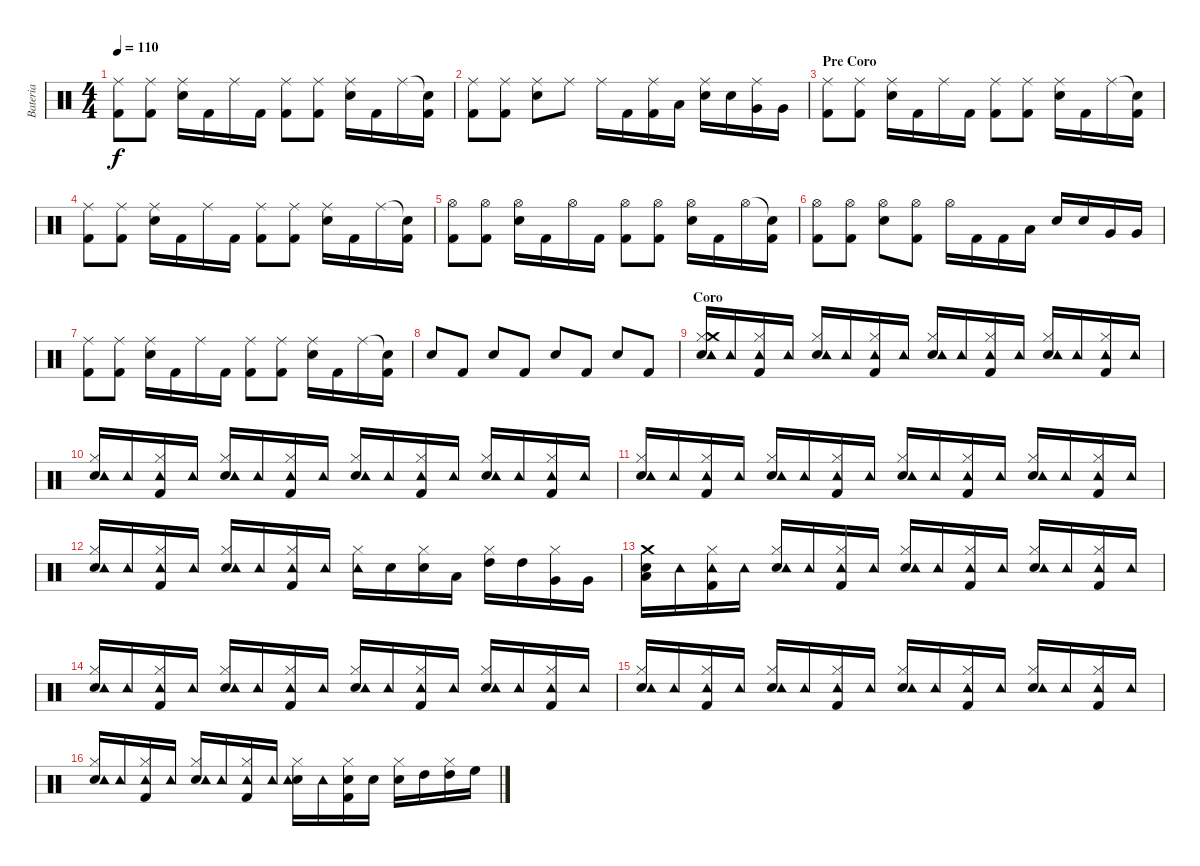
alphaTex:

\track ("Bateria" "Bateria") {instrument percussion}
\staff {score}
\articulation defaults
\ts (4 4)
\tempo 110
\clef neutral
\ks c
("Ride (middle)" "Kick (hit) 2").8{dy f} ("Ride (middle)" "Kick (hit) 2").8 ("Ride (middle)" "Snare (hit) 2").16 "Kick (hit) 2".16 "Ride (middle)".16 "Kick (hit) 2".16 ("Ride (middle)" "Kick (hit) 2").8 ("Ride (middle)" "Kick (hit) 2").8 ("Ride (middle)" "Snare (hit) 2").16 "Kick (hit) 2".16 "Ride (middle)".16 ("Snare (hit)"{t} "Kick (hit) 2").16 |
("Ride (middle)" "Kick (hit) 2").8 ("Ride (middle)" "Kick (hit) 2").8 ("Ride (middle)" "Snare (hit) 2").8 "Ride (middle)".8 "Ride (middle)".16 "Kick (hit) 2".16 ("Ride (middle)" "Kick (hit) 2").16 "Low Tom (hit)".16 ("Ride (middle)" "Snare (hit) 2").16 "Snare (hit) 2".16 ("Ride (middle)" "Very Low Tom (hit)").16 "Very Low Tom (hit)".16 |
\section ("" "Pre Coro")
("Ride (middle)" "Kick (hit) 2").8 ("Ride (middle)" "Kick (hit) 2").8 ("Ride (middle)" "Snare (hit) 2").16 "Kick (hit) 2".16 "Ride (middle)".16 "Kick (hit) 2".16 ("Ride (middle)" "Kick (hit) 2").8 ("Ride (middle)" "Kick (hit) 2").8 ("Ride (middle)" "Snare (hit) 2").16 "Kick (hit) 2".16 "Ride (middle)".16 ("Snare (hit)"{t} "Kick (hit) 2").16 |
("Ride (middle)" "Kick (hit) 2").8 ("Ride (middle)" "Kick (hit) 2").8 ("Ride (middle)" "Snare (hit) 2").16 "Kick (hit) 2".16 "Ride (middle)".16 "Kick (hit) 2".16 ("Ride (middle)" "Kick (hit) 2").8 ("Ride (middle)" "Kick (hit) 2").8 ("Ride (middle)" "Snare (hit) 2").16 "Kick (hit) 2".16 "Ride (middle)".16 ("Snare (hit)"{t} "Kick (hit) 2").16 |
("Hi-Hat (open)" "Kick (hit) 2").8 ("Hi-Hat (open)" "Kick (hit) 2").8 ("Hi-Hat (open)" "Snare (hit) 2").16 "Kick (hit) 2".16 "Hi-Hat (open)".16 "Kick (hit) 2".16 ("Hi-Hat (open)" "Kick (hit) 2").8 ("Hi-Hat (open)" "Kick (hit) 2").8 ("Hi-Hat (open)" "Snare (hit) 2").16 "Kick (hit) 2".16 "Hi-Hat (open)".16 ("Snare (hit)"{t} "Kick (hit) 2").16 |
("Hi-Hat (open)" "Kick (hit) 2").8 ("Hi-Hat (open)" "Kick (hit) 2").8 ("Hi-Hat (open)" "Snare (hit) 2").8 ("Hi-Hat (open)" "Kick (hit) 2").8 "Hi-Hat (open)".16 "Kick (hit) 2".16 "Kick (hit) 2".16 "Low Tom (hit)".16 "Snare (hit) 2".16 "Snare (hit) 2".16 "Very Low Tom (hit)".16 "Very Low Tom (hit)".16 |
("Ride (middle)" "Kick (hit) 2").8 ("Ride (middle)" "Kick (hit) 2").8 ("Ride (middle)" "Snare (hit) 2").16 "Kick (hit) 2".16 "Ride (middle)".16 "Kick (hit) 2".16 ("Ride (middle)" "Kick (hit) 2").8 ("Ride (middle)" "Kick (hit) 2").8 ("Ride (middle)" "Snare (hit) 2").16 "Kick (hit) 2".16 "Ride (middle)".16 ("Snare (hit)"{t} "Kick (hit) 2").16 |
"Snare (hit) 2".8 "Kick (hit) 2".8 "Snare (hit) 2".8 "Kick (hit) 2".8 "Snare (hit) 2".8 "Kick (hit) 2".8 "Snare (hit) 2".8 "Kick (hit) 2".8 |
\section ("" "Coro")
("Hi-Hat (closed)" "Snare (hit) 2" "Crash medium (hit)" "Tambourine (hit)").16 "Tambourine (hit)".16 ("Hi-Hat (closed)" "Kick (hit) 2" "Tambourine (hit)").16 "Tambourine (hit)".16 ("Hi-Hat (closed)" "Snare (hit) 2" "Tambourine (hit)").16 "Tambourine (hit)".16 ("Hi-Hat (closed)" "Kick (hit) 2" "Tambourine (hit)").16 "Tambourine (hit)".16 ("Hi-Hat (closed)" "Snare (hit) 2" "Tambourine (hit)").16 "Tambourine (hit)".16 ("Hi-Hat (closed)" "Kick (hit) 2" "Tambourine (hit)").16 "Tambourine (hit)".16 ("Hi-Hat (closed)" "Snare (hit) 2" "Tambourine (hit)").16 "Tambourine (hit)".16 ("Hi-Hat (closed)" "Kick (hit) 2" "Tambourine (hit)").16 "Tambourine (hit)".16 |
("Hi-Hat (closed)" "Snare (hit) 2" "Tambourine (hit)").16 "Tambourine (hit)".16 ("Hi-Hat (closed)" "Kick (hit) 2" "Tambourine (hit)").16 "Tambourine (hit)".16 ("Hi-Hat (closed)" "Snare (hit) 2" "Tambourine (hit)").16 "Tambourine (hit)".16 ("Hi-Hat (closed)" "Kick (hit) 2" "Tambourine (hit)").16 "Tambourine (hit)".16 ("Hi-Hat (closed)" "Snare (hit) 2" "Tambourine (hit)").16 "Tambourine (hit)".16 ("Hi-Hat (closed)" "Kick (hit) 2" "Tambourine (hit)").16 "Tambourine (hit)".16 ("Hi-Hat (closed)" "Snare (hit) 2" "Tambourine (hit)").16 "Tambourine (hit)".16 ("Hi-Hat (closed)" "Kick (hit) 2" "Tambourine (hit)").16 "Tambourine (hit)".16 |
("Hi-Hat (closed)" "Snare (hit) 2" "Tambourine (hit)").16 "Tambourine (hit)".16 ("Hi-Hat (closed)" "Kick (hit) 2" "Tambourine (hit)").16 "Tambourine (hit)".16 ("Hi-Hat (closed)" "Snare (hit) 2" "Tambourine (hit)").16 "Tambourine (hit)".16 ("Hi-Hat (closed)" "Kick (hit) 2" "Tambourine (hit)").16 "Tambourine (hit)".16 ("Hi-Hat (closed)" "Snare (hit) 2" "Tambourine (hit)").16 "Tambourine (hit)".16 ("Hi-Hat (closed)" "Kick (hit) 2" "Tambourine (hit)").16 "Tambourine (hit)".16 ("Hi-Hat (closed)" "Snare (hit) 2" "Tambourine (hit)").16 "Tambourine (hit)".16 ("Hi-Hat (closed)" "Kick (hit) 2" "Tambourine (hit)").16 "Tambourine (hit)".16 |
("Hi-Hat (closed)" "Snare (hit) 2" "Tambourine (hit)").16 "Tambourine (hit)".16 ("Hi-Hat (closed)" "Kick (hit) 2" "Tambourine (hit)").16 "Tambourine (hit)".16 ("Hi-Hat (closed)" "Snare (hit) 2" "Tambourine (hit)").16 "Tambourine (hit)".16 ("Hi-Hat (closed)" "Kick (hit) 2" "Tambourine (hit)").16 "Tambourine (hit)".16 ("Hi-Hat (closed)" "Tambourine (hit)").16 "Snare (hit) 2".16 ("Hi-Hat (closed)" "Snare (hit) 2").16 "Low Tom (hit)".16 ("Hi-Hat (closed)" "High Tom (hit)").16 "High Tom (hit)".16 ("Hi-Hat (closed)" "Very Low Tom (hit)").16 "Very Low Tom (hit)".16 |
("Crash medium (hit)" "Snare (hit) 2" "Low Tom (hit)").16 "Tambourine (hit)".16 ("Hi-Hat (closed)" "Kick (hit) 2" "Tambourine (hit)").16 "Tambourine (hit)".16 ("Hi-Hat (closed)" "Snare (hit) 2" "Tambourine (hit)").16 "Tambourine (hit)".16 ("Hi-Hat (closed)" "Kick (hit) 2" "Tambourine (hit)").16 "Tambourine (hit)".16 ("Hi-Hat (closed)" "Snare (hit) 2" "Tambourine (hit)").16 "Tambourine (hit)".16 ("Hi-Hat (closed)" "Kick (hit) 2" "Tambourine (hit)").16 "Tambourine (hit)".16 ("Hi-Hat (closed)" "Snare (hit) 2" "Tambourine (hit)").16 "Tambourine (hit)".16 ("Hi-Hat (closed)" "Kick (hit) 2" "Tambourine (hit)").16 "Tambourine (hit)".16 |
("Hi-Hat (closed)" "Snare (hit) 2" "Tambourine (hit)").16 "Tambourine (hit)".16 ("Hi-Hat (closed)" "Kick (hit) 2" "Tambourine (hit)").16 "Tambourine (hit)".16 ("Hi-Hat (closed)" "Snare (hit) 2" "Tambourine (hit)").16 "Tambourine (hit)".16 ("Hi-Hat (closed)" "Kick (hit) 2" "Tambourine (hit)").16 "Tambourine (hit)".16 ("Hi-Hat (closed)" "Snare (hit) 2" "Tambourine (hit)").16 "Tambourine (hit)".16 ("Hi-Hat (closed)" "Kick (hit) 2" "Tambourine (hit)").16 "Tambourine (hit)".16 ("Hi-Hat (closed)" "Snare (hit) 2" "Tambourine (hit)").16 "Tambourine (hit)".16 ("Hi-Hat (closed)" "Kick (hit) 2" "Tambourine (hit)").16 "Tambourine (hit)".16 |
("Hi-Hat (closed)" "Snare (hit) 2" "Tambourine (hit)").16 "Tambourine (hit)".16 ("Hi-Hat (closed)" "Kick (hit) 2" "Tambourine (hit)").16 "Tambourine (hit)".16 ("Hi-Hat (closed)" "Snare (hit) 2" "Tambourine (hit)").16 "Tambourine (hit)".16 ("Hi-Hat (closed)" "Kick (hit) 2" "Tambourine (hit)").16 "Tambourine (hit)".16 ("Hi-Hat (closed)" "Snare (hit) 2" "Tambourine (hit)").16 "Tambourine (hit)".16 ("Hi-Hat (closed)" "Kick (hit) 2" "Tambourine (hit)").16 "Tambourine (hit)".16 ("Hi-Hat (closed)" "Snare (hit) 2" "Tambourine (hit)").16 "Tambourine (hit)".16 ("Hi-Hat (closed)" "Kick (hit) 2" "Tambourine (hit)").16 "Tambourine (hit)".16 |
("Hi-Hat (closed)" "Snare (hit) 2" "Tambourine (hit)").16 "Tambourine (hit)".16 ("Hi-Hat (closed)" "Kick (hit) 2" "Tambourine (hit)").16 "Tambourine (hit)".16 ("Hi-Hat (closed)" "Snare (hit) 2" "Tambourine (hit)").16 "Tambourine (hit)".16 ("Hi-Hat (closed)" "Kick (hit) 2" "Tambourine (hit)").16 "Tambourine (hit)".16 ("Hi-Hat (closed)" "Snare (hit) 2" "Tambourine (hit)").16 "Tambourine (hit)".16 ("Hi-Hat (closed)" "Kick (hit) 2" "Snare (hit) 2").16 "Snare (hit) 2".16 ("Hi-Hat (closed)" "Snare (hit) 2").16 "High Tom (hit)".16 ("Hi-Hat (closed)" "High Tom (hit)").16 "High Floor Tom (hit)".16
